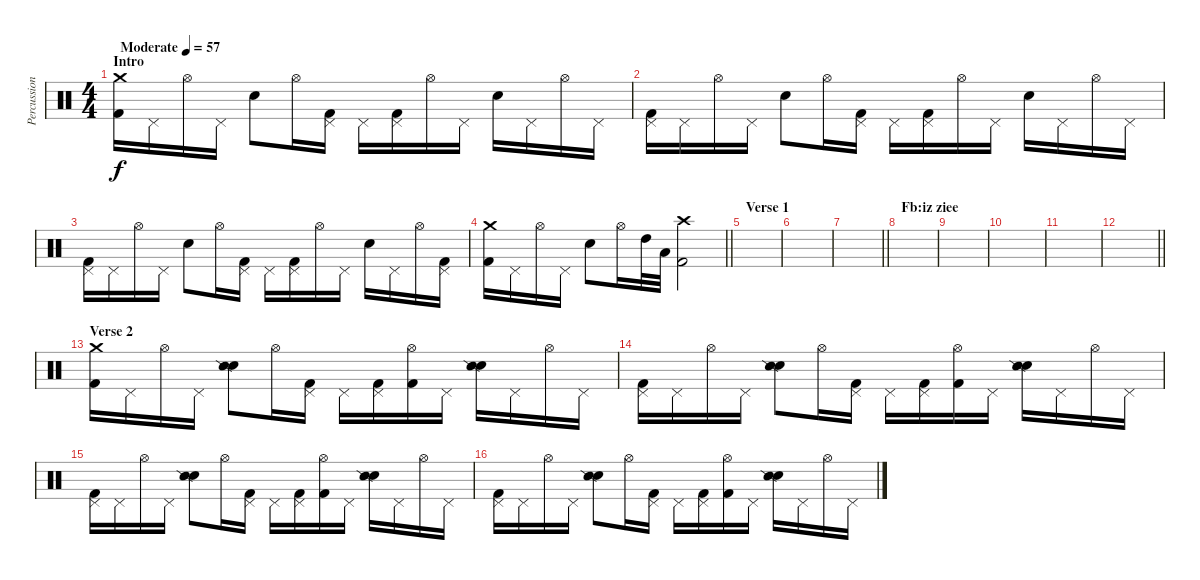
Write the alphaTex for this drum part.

\track ("Percussion" "Percussion") {instrument percussion}
\staff {score}
\articulation defaults
\ts (4 4)
\section ("" "Intro")
\tempo (57 "Moderate")
\clef neutral
\ks c
("Crash medium (hit)" "Kick (hit) 2").16{dy f} "Pedal Hi-Hat (hit)".16 "Hi-Hat (open)".16 "Pedal Hi-Hat (hit)".16 "Electric Snare (hit)".8 "Hi-Hat (open)".16 ("Pedal Hi-Hat (hit)" "Kick (hit) 2").16 "Pedal Hi-Hat (hit)".16 ("Pedal Hi-Hat (hit)" "Kick (hit) 2").16 "Hi-Hat (open)".16 "Pedal Hi-Hat (hit)".16 "Electric Snare (hit)".16 "Pedal Hi-Hat (hit)".16 "Hi-Hat (open)".16 "Pedal Hi-Hat (hit)".16 |
("Pedal Hi-Hat (hit)" "Kick (hit) 2").16 "Pedal Hi-Hat (hit)".16 "Hi-Hat (open)".16 "Pedal Hi-Hat (hit)".16 "Electric Snare (hit)".8 "Hi-Hat (open)".16 ("Pedal Hi-Hat (hit)" "Kick (hit) 2").16 "Pedal Hi-Hat (hit)".16 ("Pedal Hi-Hat (hit)" "Kick (hit) 2").16 "Hi-Hat (open)".16 "Pedal Hi-Hat (hit)".16 "Electric Snare (hit)".16 "Pedal Hi-Hat (hit)".16 "Hi-Hat (open)".16 "Pedal Hi-Hat (hit)".16 |
("Pedal Hi-Hat (hit)" "Kick (hit) 2").16 "Pedal Hi-Hat (hit)".16 "Hi-Hat (open)".16 "Pedal Hi-Hat (hit)".16 "Electric Snare (hit)".8 "Hi-Hat (open)".16 ("Pedal Hi-Hat (hit)" "Kick (hit) 2").16 "Pedal Hi-Hat (hit)".16 ("Pedal Hi-Hat (hit)" "Kick (hit) 2").16 "Hi-Hat (open)".16 "Pedal Hi-Hat (hit)".16 "Electric Snare (hit)".16 "Pedal Hi-Hat (hit)".16 "Hi-Hat (open)".16 ("Pedal Hi-Hat (hit)" "Kick (hit) 2").16 |
\barLineRight lightlight
("Crash medium (hit)" "Kick (hit) 2").16 "Pedal Hi-Hat (hit)".16 "Hi-Hat (open)".16 "Pedal Hi-Hat (hit)".16 "Electric Snare (hit)".8 "Hi-Hat (open)".16 "High Tom (hit)".32 "Low Tom (hit)".32 ("Crash high (hit)" "Kick (hit) 2").2 |
\section ("" "Verse 1")
|
|
\barLineRight lightlight
|
\section ("" "Fb:iz ziee")
|
|
|
|
\barLineRight lightlight
|
\section ("" "Verse 2")
("Crash medium (hit)" "Kick (hit) 2").16 "Pedal Hi-Hat (hit)".16 "Hi-Hat (open)".16 "Pedal Hi-Hat (hit)".16 ("Electric Snare (hit)" "Snare (side stick) 2").8 "Hi-Hat (open)".16 ("Pedal Hi-Hat (hit)" "Kick (hit) 2").16 "Pedal Hi-Hat (hit)".16 ("Pedal Hi-Hat (hit)" "Kick (hit) 2").16 ("Hi-Hat (open)" "Kick (hit) 2").16 "Pedal Hi-Hat (hit)".16 ("Electric Snare (hit)" "Snare (side stick) 2").16 "Pedal Hi-Hat (hit)".16 "Hi-Hat (open)".16 "Pedal Hi-Hat (hit)".16 |
("Pedal Hi-Hat (hit)" "Kick (hit) 2").16 "Pedal Hi-Hat (hit)".16 "Hi-Hat (open)".16 "Pedal Hi-Hat (hit)".16 ("Electric Snare (hit)" "Snare (side stick) 2").8 "Hi-Hat (open)".16 ("Pedal Hi-Hat (hit)" "Kick (hit) 2").16 "Pedal Hi-Hat (hit)".16 ("Pedal Hi-Hat (hit)" "Kick (hit) 2").16 ("Hi-Hat (open)" "Kick (hit) 2").16 "Pedal Hi-Hat (hit)".16 ("Electric Snare (hit)" "Snare (side stick) 2").16 "Pedal Hi-Hat (hit)".16 "Hi-Hat (open)".16 "Pedal Hi-Hat (hit)".16 |
("Pedal Hi-Hat (hit)" "Kick (hit) 2").16 "Pedal Hi-Hat (hit)".16 "Hi-Hat (open)".16 "Pedal Hi-Hat (hit)".16 ("Electric Snare (hit)" "Snare (side stick) 2").8 "Hi-Hat (open)".16 ("Pedal Hi-Hat (hit)" "Kick (hit) 2").16 "Pedal Hi-Hat (hit)".16 ("Pedal Hi-Hat (hit)" "Kick (hit) 2").16 ("Hi-Hat (open)" "Kick (hit) 2").16 "Pedal Hi-Hat (hit)".16 ("Electric Snare (hit)" "Snare (side stick) 2").16 "Pedal Hi-Hat (hit)".16 "Hi-Hat (open)".16 "Pedal Hi-Hat (hit)".16 |
("Pedal Hi-Hat (hit)" "Kick (hit) 2").16 "Pedal Hi-Hat (hit)".16 "Hi-Hat (open)".16 "Pedal Hi-Hat (hit)".16 ("Electric Snare (hit)" "Snare (side stick) 2").8 "Hi-Hat (open)".16 ("Pedal Hi-Hat (hit)" "Kick (hit) 2").16 "Pedal Hi-Hat (hit)".16 ("Pedal Hi-Hat (hit)" "Kick (hit) 2").16 ("Hi-Hat (open)" "Kick (hit) 2").16 "Pedal Hi-Hat (hit)".16 ("Electric Snare (hit)" "Snare (side stick) 2").16 "Pedal Hi-Hat (hit)".16 "Hi-Hat (open)".16 "Pedal Hi-Hat (hit)".16
